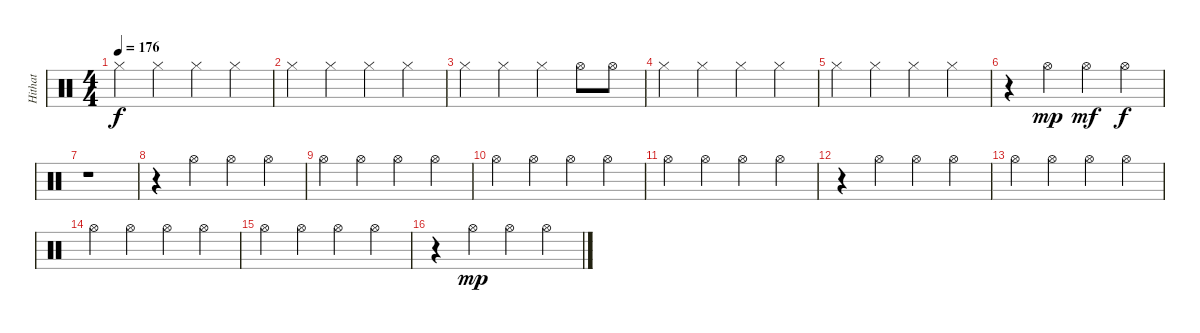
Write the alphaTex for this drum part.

\track ("Hithat" "Hithat") {instrument percussion}
\staff {score}
\articulation defaults
\ts (4 4)
\tempo 176
\clef neutral
\ks c "Hi-Hat (closed)".4{dy f} "Hi-Hat (closed)".4 "Hi-Hat (closed)".4 "Hi-Hat (closed)".4
|
"Hi-Hat (closed)".4 "Hi-Hat (closed)".4 "Hi-Hat (closed)".4 "Hi-Hat (closed)".4 |
"Hi-Hat (closed)".4 "Hi-Hat (closed)".4 "Hi-Hat (closed)".4 "Hi-Hat (open)".8 "Hi-Hat (open)".8 |
"Hi-Hat (closed)".4 "Hi-Hat (closed)".4 "Hi-Hat (closed)".4 "Hi-Hat (closed)".4 |
"Hi-Hat (closed)".4 "Hi-Hat (closed)".4 "Hi-Hat (closed)".4 "Hi-Hat (closed)".4 |
r.4 "Hi-Hat (open)".4{dy mp} "Hi-Hat (open)".4{dy mf} "Hi-Hat (open)".4{dy f} |
r.1 |
r.4 "Hi-Hat (open)".4 "Hi-Hat (open)".4 "Hi-Hat (open)".4 |
"Hi-Hat (open)".4 "Hi-Hat (open)".4 "Hi-Hat (open)".4 "Hi-Hat (open)".4 |
"Hi-Hat (open)".4 "Hi-Hat (open)".4 "Hi-Hat (open)".4 "Hi-Hat (open)".4 |
"Hi-Hat (open)".4 "Hi-Hat (open)".4 "Hi-Hat (open)".4 "Hi-Hat (open)".4 |
r.4 "Hi-Hat (open)".4 "Hi-Hat (open)".4 "Hi-Hat (open)".4 |
"Hi-Hat (open)".4 "Hi-Hat (open)".4 "Hi-Hat (open)".4 "Hi-Hat (open)".4 |
"Hi-Hat (open)".4 "Hi-Hat (open)".4 "Hi-Hat (open)".4 "Hi-Hat (open)".4 |
"Hi-Hat (open)".4 "Hi-Hat (open)".4 "Hi-Hat (open)".4 "Hi-Hat (open)".4 |
r.4 "Hi-Hat (open)".4{dy mp} "Hi-Hat (open)".4 "Hi-Hat (open)".4
